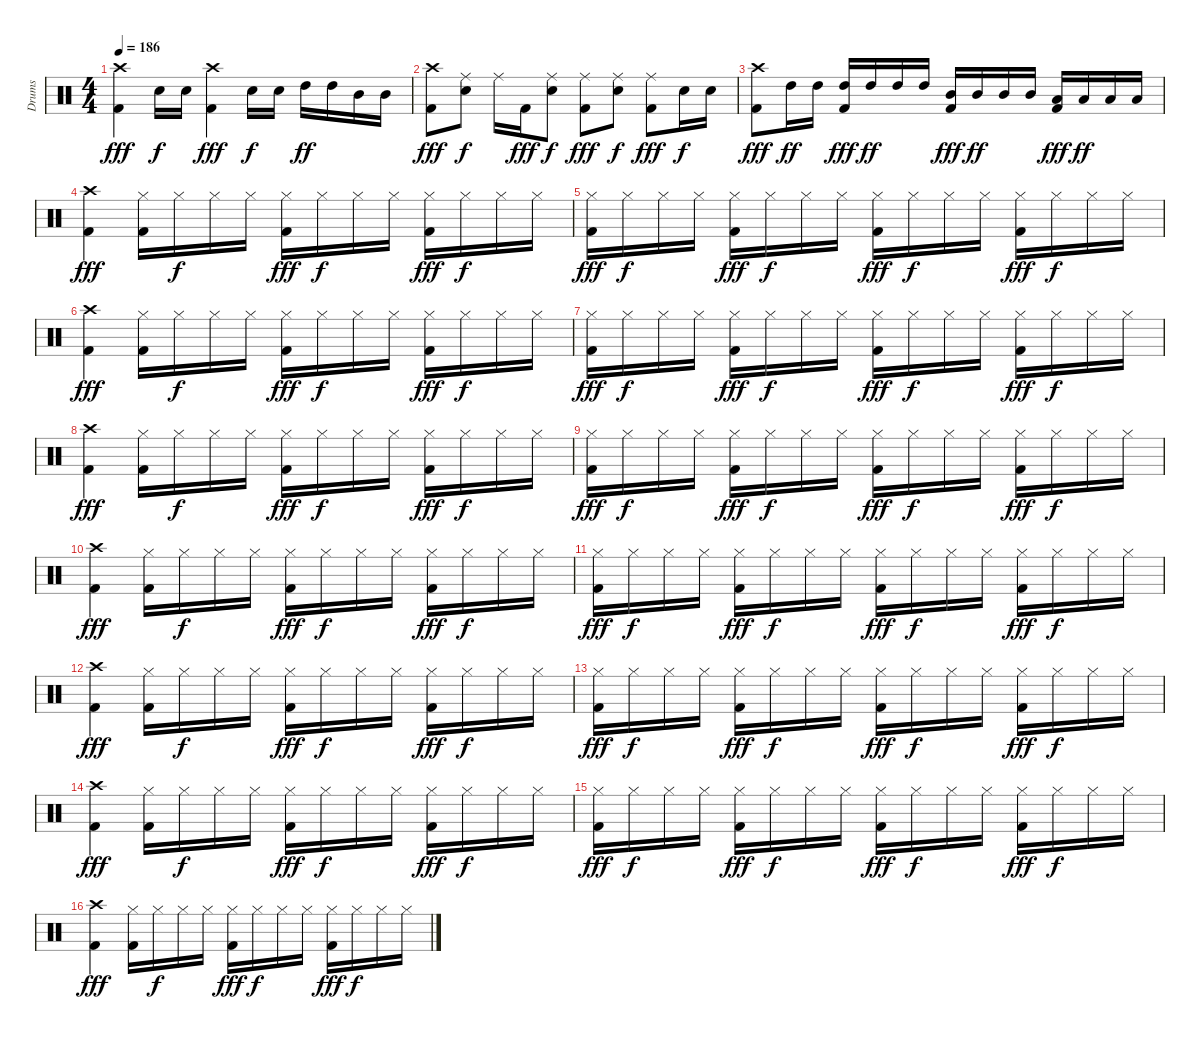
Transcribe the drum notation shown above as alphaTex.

\track ("Drums" "Drums") {instrument percussion}
\staff {score}
\articulation defaults
\ts (4 4)
\tempo 186
\clef neutral
\ks c
("Crash high (hit)" "Kick (hit) 2").4{dy fff} "Electric Snare (hit)".16{dy f} "Electric Snare (hit)".16 ("Crash high (hit)" "Kick (hit) 2").4{dy fff} "Electric Snare (hit)".16{dy f} "Electric Snare (hit)".16 "High Tom (hit)".16{dy ff} "High Tom (hit)".16 "Mid Tom (hit)".16 "Mid Tom (hit)".16 |
("Crash high (hit)" "Kick (hit) 2").8{dy fff} ("Ride (middle)" "Electric Snare (hit)").8{dy f} "Ride (middle)".16 "Kick (hit) 2".16{dy fff} ("Ride (middle)" "Electric Snare (hit)").8{dy f} ("Ride (middle)" "Kick (hit) 2").8{dy fff} ("Ride (middle)" "Electric Snare (hit)").8{dy f} ("Ride (middle)" "Kick (hit) 2").8{dy fff} "Electric Snare (hit)".16{dy f} "Electric Snare (hit)".16 |
("Crash high (hit)" "Kick (hit) 2").8{dy fff} "High Tom (hit)".16{dy ff} "High Tom (hit)".16 ("High Tom (hit)" "Kick (hit) 2").16{dy fff} "High Tom (hit)".16{dy ff} "High Tom (hit)".16 "High Tom (hit)".16 ("Mid Tom (hit)" "Kick (hit) 2").16{dy fff} "Mid Tom (hit)".16{dy ff} "Mid Tom (hit)".16 "Mid Tom (hit)".16 ("Low Tom (hit)" "Kick (hit) 2").16{dy fff} "Low Tom (hit)".16{dy ff} "Low Tom (hit)".16 "Low Tom (hit)".16 |
("Crash high (hit)" "Kick (hit) 2").4{dy fff} ("Hi-Hat (closed)" "Kick (hit) 2").16 "Hi-Hat (closed)".16{dy f} "Hi-Hat (closed)".16 "Hi-Hat (closed)".16 ("Hi-Hat (closed)" "Kick (hit) 2").16{dy fff} "Hi-Hat (closed)".16{dy f} "Hi-Hat (closed)".16 "Hi-Hat (closed)".16 ("Hi-Hat (closed)" "Kick (hit) 2").16{dy fff} "Hi-Hat (closed)".16{dy f} "Hi-Hat (closed)".16 "Hi-Hat (closed)".16 |
("Hi-Hat (closed)" "Kick (hit) 2").16{dy fff} "Hi-Hat (closed)".16{dy f} "Hi-Hat (closed)".16 "Hi-Hat (closed)".16 ("Hi-Hat (closed)" "Kick (hit) 2").16{dy fff} "Hi-Hat (closed)".16{dy f} "Hi-Hat (closed)".16 "Hi-Hat (closed)".16 ("Hi-Hat (closed)" "Kick (hit) 2").16{dy fff} "Hi-Hat (closed)".16{dy f} "Hi-Hat (closed)".16 "Hi-Hat (closed)".16 ("Hi-Hat (closed)" "Kick (hit) 2").16{dy fff} "Hi-Hat (closed)".16{dy f} "Hi-Hat (closed)".16 "Hi-Hat (closed)".16 |
("Crash high (hit)" "Kick (hit) 2").4{dy fff} ("Hi-Hat (closed)" "Kick (hit) 2").16 "Hi-Hat (closed)".16{dy f} "Hi-Hat (closed)".16 "Hi-Hat (closed)".16 ("Hi-Hat (closed)" "Kick (hit) 2").16{dy fff} "Hi-Hat (closed)".16{dy f} "Hi-Hat (closed)".16 "Hi-Hat (closed)".16 ("Hi-Hat (closed)" "Kick (hit) 2").16{dy fff} "Hi-Hat (closed)".16{dy f} "Hi-Hat (closed)".16 "Hi-Hat (closed)".16 |
("Hi-Hat (closed)" "Kick (hit) 2").16{dy fff} "Hi-Hat (closed)".16{dy f} "Hi-Hat (closed)".16 "Hi-Hat (closed)".16 ("Hi-Hat (closed)" "Kick (hit) 2").16{dy fff} "Hi-Hat (closed)".16{dy f} "Hi-Hat (closed)".16 "Hi-Hat (closed)".16 ("Hi-Hat (closed)" "Kick (hit) 2").16{dy fff} "Hi-Hat (closed)".16{dy f} "Hi-Hat (closed)".16 "Hi-Hat (closed)".16 ("Hi-Hat (closed)" "Kick (hit) 2").16{dy fff} "Hi-Hat (closed)".16{dy f} "Hi-Hat (closed)".16 "Hi-Hat (closed)".16 |
("Crash high (hit)" "Kick (hit) 2").4{dy fff} ("Hi-Hat (closed)" "Kick (hit) 2").16 "Hi-Hat (closed)".16{dy f} "Hi-Hat (closed)".16 "Hi-Hat (closed)".16 ("Hi-Hat (closed)" "Kick (hit) 2").16{dy fff} "Hi-Hat (closed)".16{dy f} "Hi-Hat (closed)".16 "Hi-Hat (closed)".16 ("Hi-Hat (closed)" "Kick (hit) 2").16{dy fff} "Hi-Hat (closed)".16{dy f} "Hi-Hat (closed)".16 "Hi-Hat (closed)".16 |
("Hi-Hat (closed)" "Kick (hit) 2").16{dy fff} "Hi-Hat (closed)".16{dy f} "Hi-Hat (closed)".16 "Hi-Hat (closed)".16 ("Hi-Hat (closed)" "Kick (hit) 2").16{dy fff} "Hi-Hat (closed)".16{dy f} "Hi-Hat (closed)".16 "Hi-Hat (closed)".16 ("Hi-Hat (closed)" "Kick (hit) 2").16{dy fff} "Hi-Hat (closed)".16{dy f} "Hi-Hat (closed)".16 "Hi-Hat (closed)".16 ("Hi-Hat (closed)" "Kick (hit) 2").16{dy fff} "Hi-Hat (closed)".16{dy f} "Hi-Hat (closed)".16 "Hi-Hat (closed)".16 |
("Crash high (hit)" "Kick (hit) 2").4{dy fff} ("Hi-Hat (closed)" "Kick (hit) 2").16 "Hi-Hat (closed)".16{dy f} "Hi-Hat (closed)".16 "Hi-Hat (closed)".16 ("Hi-Hat (closed)" "Kick (hit) 2").16{dy fff} "Hi-Hat (closed)".16{dy f} "Hi-Hat (closed)".16 "Hi-Hat (closed)".16 ("Hi-Hat (closed)" "Kick (hit) 2").16{dy fff} "Hi-Hat (closed)".16{dy f} "Hi-Hat (closed)".16 "Hi-Hat (closed)".16 |
("Hi-Hat (closed)" "Kick (hit) 2").16{dy fff} "Hi-Hat (closed)".16{dy f} "Hi-Hat (closed)".16 "Hi-Hat (closed)".16 ("Hi-Hat (closed)" "Kick (hit) 2").16{dy fff} "Hi-Hat (closed)".16{dy f} "Hi-Hat (closed)".16 "Hi-Hat (closed)".16 ("Hi-Hat (closed)" "Kick (hit) 2").16{dy fff} "Hi-Hat (closed)".16{dy f} "Hi-Hat (closed)".16 "Hi-Hat (closed)".16 ("Hi-Hat (closed)" "Kick (hit) 2").16{dy fff} "Hi-Hat (closed)".16{dy f} "Hi-Hat (closed)".16 "Hi-Hat (closed)".16 |
("Crash high (hit)" "Kick (hit) 2").4{dy fff} ("Hi-Hat (closed)" "Kick (hit) 2").16 "Hi-Hat (closed)".16{dy f} "Hi-Hat (closed)".16 "Hi-Hat (closed)".16 ("Hi-Hat (closed)" "Kick (hit) 2").16{dy fff} "Hi-Hat (closed)".16{dy f} "Hi-Hat (closed)".16 "Hi-Hat (closed)".16 ("Hi-Hat (closed)" "Kick (hit) 2").16{dy fff} "Hi-Hat (closed)".16{dy f} "Hi-Hat (closed)".16 "Hi-Hat (closed)".16 |
("Hi-Hat (closed)" "Kick (hit) 2").16{dy fff} "Hi-Hat (closed)".16{dy f} "Hi-Hat (closed)".16 "Hi-Hat (closed)".16 ("Hi-Hat (closed)" "Kick (hit) 2").16{dy fff} "Hi-Hat (closed)".16{dy f} "Hi-Hat (closed)".16 "Hi-Hat (closed)".16 ("Hi-Hat (closed)" "Kick (hit) 2").16{dy fff} "Hi-Hat (closed)".16{dy f} "Hi-Hat (closed)".16 "Hi-Hat (closed)".16 ("Hi-Hat (closed)" "Kick (hit) 2").16{dy fff} "Hi-Hat (closed)".16{dy f} "Hi-Hat (closed)".16 "Hi-Hat (closed)".16 |
("Crash high (hit)" "Kick (hit) 2").4{dy fff} ("Hi-Hat (closed)" "Kick (hit) 2").16 "Hi-Hat (closed)".16{dy f} "Hi-Hat (closed)".16 "Hi-Hat (closed)".16 ("Hi-Hat (closed)" "Kick (hit) 2").16{dy fff} "Hi-Hat (closed)".16{dy f} "Hi-Hat (closed)".16 "Hi-Hat (closed)".16 ("Hi-Hat (closed)" "Kick (hit) 2").16{dy fff} "Hi-Hat (closed)".16{dy f} "Hi-Hat (closed)".16 "Hi-Hat (closed)".16 |
("Hi-Hat (closed)" "Kick (hit) 2").16{dy fff} "Hi-Hat (closed)".16{dy f} "Hi-Hat (closed)".16 "Hi-Hat (closed)".16 ("Hi-Hat (closed)" "Kick (hit) 2").16{dy fff} "Hi-Hat (closed)".16{dy f} "Hi-Hat (closed)".16 "Hi-Hat (closed)".16 ("Hi-Hat (closed)" "Kick (hit) 2").16{dy fff} "Hi-Hat (closed)".16{dy f} "Hi-Hat (closed)".16 "Hi-Hat (closed)".16 ("Hi-Hat (closed)" "Kick (hit) 2").16{dy fff} "Hi-Hat (closed)".16{dy f} "Hi-Hat (closed)".16 "Hi-Hat (closed)".16 |
("Crash high (hit)" "Kick (hit) 2").4{dy fff} ("Hi-Hat (closed)" "Kick (hit) 2").16 "Hi-Hat (closed)".16{dy f} "Hi-Hat (closed)".16 "Hi-Hat (closed)".16 ("Hi-Hat (closed)" "Kick (hit) 2").16{dy fff} "Hi-Hat (closed)".16{dy f} "Hi-Hat (closed)".16 "Hi-Hat (closed)".16 ("Hi-Hat (closed)" "Kick (hit) 2").16{dy fff} "Hi-Hat (closed)".16{dy f} "Hi-Hat (closed)".16 "Hi-Hat (closed)".16
